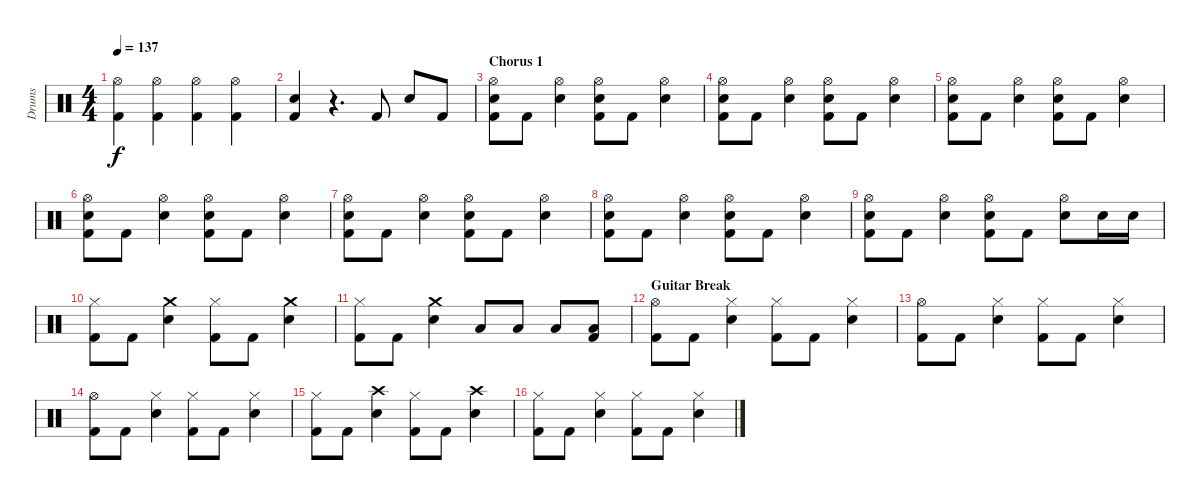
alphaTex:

\track ("Drums" "Drums") {instrument percussion}
\staff {score}
\articulation defaults
\ts (4 4)
\tempo 137
\clef neutral
\ks c
("Hi-Hat (open)" "Kick (hit) 2").4{dy f} ("Hi-Hat (open)" "Kick (hit) 2").4 ("Hi-Hat (open)" "Kick (hit) 2").4 ("Hi-Hat (open)" "Kick (hit) 2").4 |
("Electric Snare (hit)" "Kick (hit) 2").4 r.4{d} "Kick (hit) 2".8 "Electric Snare (hit)".8 "Kick (hit) 2".8 |
\section ("" "Chorus 1")
("Hi-Hat (open)" "Electric Snare (hit)" "Kick (hit) 2").8 "Kick (hit) 2".8 ("Hi-Hat (open)" "Electric Snare (hit)").4 ("Hi-Hat (open)" "Electric Snare (hit)" "Kick (hit) 2").8 "Kick (hit) 2".8 ("Hi-Hat (open)" "Electric Snare (hit)").4 |
("Hi-Hat (open)" "Electric Snare (hit)" "Kick (hit) 2").8 "Kick (hit) 2".8 ("Hi-Hat (open)" "Electric Snare (hit)").4 ("Hi-Hat (open)" "Electric Snare (hit)" "Kick (hit) 2").8 "Kick (hit) 2".8 ("Hi-Hat (open)" "Electric Snare (hit)").4 |
("Hi-Hat (open)" "Electric Snare (hit)" "Kick (hit) 2").8 "Kick (hit) 2".8 ("Hi-Hat (open)" "Electric Snare (hit)").4 ("Hi-Hat (open)" "Electric Snare (hit)" "Kick (hit) 2").8 "Kick (hit) 2".8 ("Hi-Hat (open)" "Electric Snare (hit)").4 |
("Hi-Hat (open)" "Electric Snare (hit)" "Kick (hit) 2").8 "Kick (hit) 2".8 ("Hi-Hat (open)" "Electric Snare (hit)").4 ("Hi-Hat (open)" "Electric Snare (hit)" "Kick (hit) 2").8 "Kick (hit) 2".8 ("Hi-Hat (open)" "Electric Snare (hit)").4 |
("Hi-Hat (open)" "Electric Snare (hit)" "Kick (hit) 2").8 "Kick (hit) 2".8 ("Hi-Hat (open)" "Electric Snare (hit)").4 ("Hi-Hat (open)" "Electric Snare (hit)" "Kick (hit) 2").8 "Kick (hit) 2".8 ("Hi-Hat (open)" "Electric Snare (hit)").4 |
("Hi-Hat (open)" "Electric Snare (hit)" "Kick (hit) 2").8 "Kick (hit) 2".8 ("Hi-Hat (open)" "Electric Snare (hit)").4 ("Hi-Hat (open)" "Electric Snare (hit)" "Kick (hit) 2").8 "Kick (hit) 2".8 ("Hi-Hat (open)" "Electric Snare (hit)").4 |
("Hi-Hat (open)" "Electric Snare (hit)" "Kick (hit) 2").8 "Kick (hit) 2".8 ("Hi-Hat (open)" "Electric Snare (hit)").4 ("Hi-Hat (open)" "Electric Snare (hit)" "Kick (hit) 2").8 "Kick (hit) 2".8 ("Hi-Hat (open)" "Electric Snare (hit)").8 "Electric Snare (hit)".16 "Electric Snare (hit)".16 |
("Hi-Hat (closed)" "Kick (hit) 2").8 "Kick (hit) 2".8 ("Crash medium (hit)" "Electric Snare (hit)").4 ("Hi-Hat (closed)" "Kick (hit) 2").8 "Kick (hit) 2".8 ("Crash medium (hit)" "Electric Snare (hit)").4 |
("Hi-Hat (closed)" "Kick (hit) 2").8 "Kick (hit) 2".8 ("Crash medium (hit)" "Electric Snare (hit)").4 "Low Tom (hit)".8 "Low Tom (hit)".8 "Low Tom (hit)".8 ("Low Tom (hit)" "Kick (hit) 2").8 |
\section ("" "Guitar Break")
("Hi-Hat (open)" "Kick (hit) 2").8 "Kick (hit) 2".8 ("Hi-Hat (closed)" "Electric Snare (hit)").4 ("Hi-Hat (closed)" "Kick (hit) 2").8 "Kick (hit) 2".8 ("Hi-Hat (closed)" "Electric Snare (hit)").4 |
("Hi-Hat (open)" "Kick (hit) 2").8 "Kick (hit) 2".8 ("Hi-Hat (closed)" "Electric Snare (hit)").4 ("Hi-Hat (closed)" "Kick (hit) 2").8 "Kick (hit) 2".8 ("Hi-Hat (closed)" "Electric Snare (hit)").4 |
("Hi-Hat (open)" "Kick (hit) 2").8 "Kick (hit) 2".8 ("Hi-Hat (closed)" "Electric Snare (hit)").4 ("Hi-Hat (closed)" "Kick (hit) 2").8 "Kick (hit) 2".8 ("Hi-Hat (closed)" "Electric Snare (hit)").4 |
("Hi-Hat (closed)" "Kick (hit) 2").8 "Kick (hit) 2".8 ("Crash high (hit)" "Electric Snare (hit)").4 ("Hi-Hat (closed)" "Kick (hit) 2").8 "Kick (hit) 2".8 ("Crash high (hit)" "Electric Snare (hit)").4 |
("Hi-Hat (closed)" "Kick (hit) 2").8 "Kick (hit) 2".8 ("Hi-Hat (closed)" "Electric Snare (hit)").4 ("Hi-Hat (closed)" "Kick (hit) 2").8 "Kick (hit) 2".8 ("Hi-Hat (closed)" "Electric Snare (hit)").4
